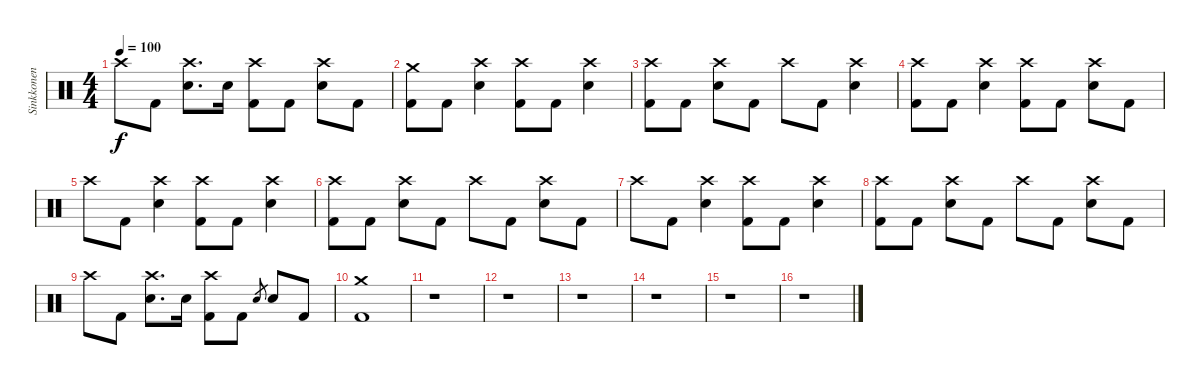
\track ("Sinkkonen" "Sinkkonen") {instrument percussion}
\staff {score}
\articulation defaults
\ts (4 4)
\tempo 100
\clef neutral
\ks c "Crash high (hit)".8{dy f} "Kick (hit) 2".8
("Crash high (hit)" "Electric Snare (hit)").8{d} "Electric Snare (hit)".16 ("Kick (hit) 2" "Crash high (hit)").8 "Kick (hit) 2".8 ("Crash high (hit)" "Electric Snare (hit)").8 "Kick (hit) 2".8 |
("Kick (hit) 2" "Crash medium (hit)").8 "Kick (hit) 2".8 ("Crash high (hit)" "Electric Snare (hit)").4 ("Kick (hit) 2" "Crash high (hit)").8 "Kick (hit) 2".8 ("Crash high (hit)" "Electric Snare (hit)").4 |
("Kick (hit) 2" "Crash high (hit)").8 "Kick (hit) 2".8 ("Crash high (hit)" "Electric Snare (hit)").8 "Kick (hit) 2".8 "Crash high (hit)".8 "Kick (hit) 2".8 ("Crash high (hit)" "Electric Snare (hit)").4 |
("Kick (hit) 2" "Crash high (hit)").8 "Kick (hit) 2".8 ("Crash high (hit)" "Electric Snare (hit)").4 ("Kick (hit) 2" "Crash high (hit)").8 "Kick (hit) 2".8 ("Crash high (hit)" "Electric Snare (hit)").8 "Kick (hit) 2".8 |
"Crash high (hit)".8 "Kick (hit) 2".8 ("Crash high (hit)" "Electric Snare (hit)").4 ("Kick (hit) 2" "Crash high (hit)").8 "Kick (hit) 2".8 ("Crash high (hit)" "Electric Snare (hit)").4 |
("Kick (hit) 2" "Crash high (hit)").8 "Kick (hit) 2".8 ("Crash high (hit)" "Electric Snare (hit)").8 "Kick (hit) 2".8 "Crash high (hit)".8 "Kick (hit) 2".8 ("Crash high (hit)" "Electric Snare (hit)").8 "Kick (hit) 2".8 |
"Crash high (hit)".8 "Kick (hit) 2".8 ("Crash high (hit)" "Electric Snare (hit)").4 ("Kick (hit) 2" "Crash high (hit)").8 "Kick (hit) 2".8 ("Crash high (hit)" "Electric Snare (hit)").4 |
("Kick (hit) 2" "Crash high (hit)").8 "Kick (hit) 2".8 ("Crash high (hit)" "Electric Snare (hit)").8 "Kick (hit) 2".8 "Crash high (hit)".8 "Kick (hit) 2".8 ("Crash high (hit)" "Electric Snare (hit)").8 "Kick (hit) 2".8 |
"Crash high (hit)".8 "Kick (hit) 2".8 ("Crash high (hit)" "Electric Snare (hit)").8{d} "Electric Snare (hit)".16 ("Kick (hit) 2" "Crash high (hit)").8 "Kick (hit) 2".8 "Electric Snare (hit)".8{gr} "Electric Snare (hit)".8 "Kick (hit) 2".8 |
("Kick (hit) 2" "Crash medium (hit)").1 |
r.1 |
r.1 |
r.1 |
r.1 |
r.1 |
r.1
